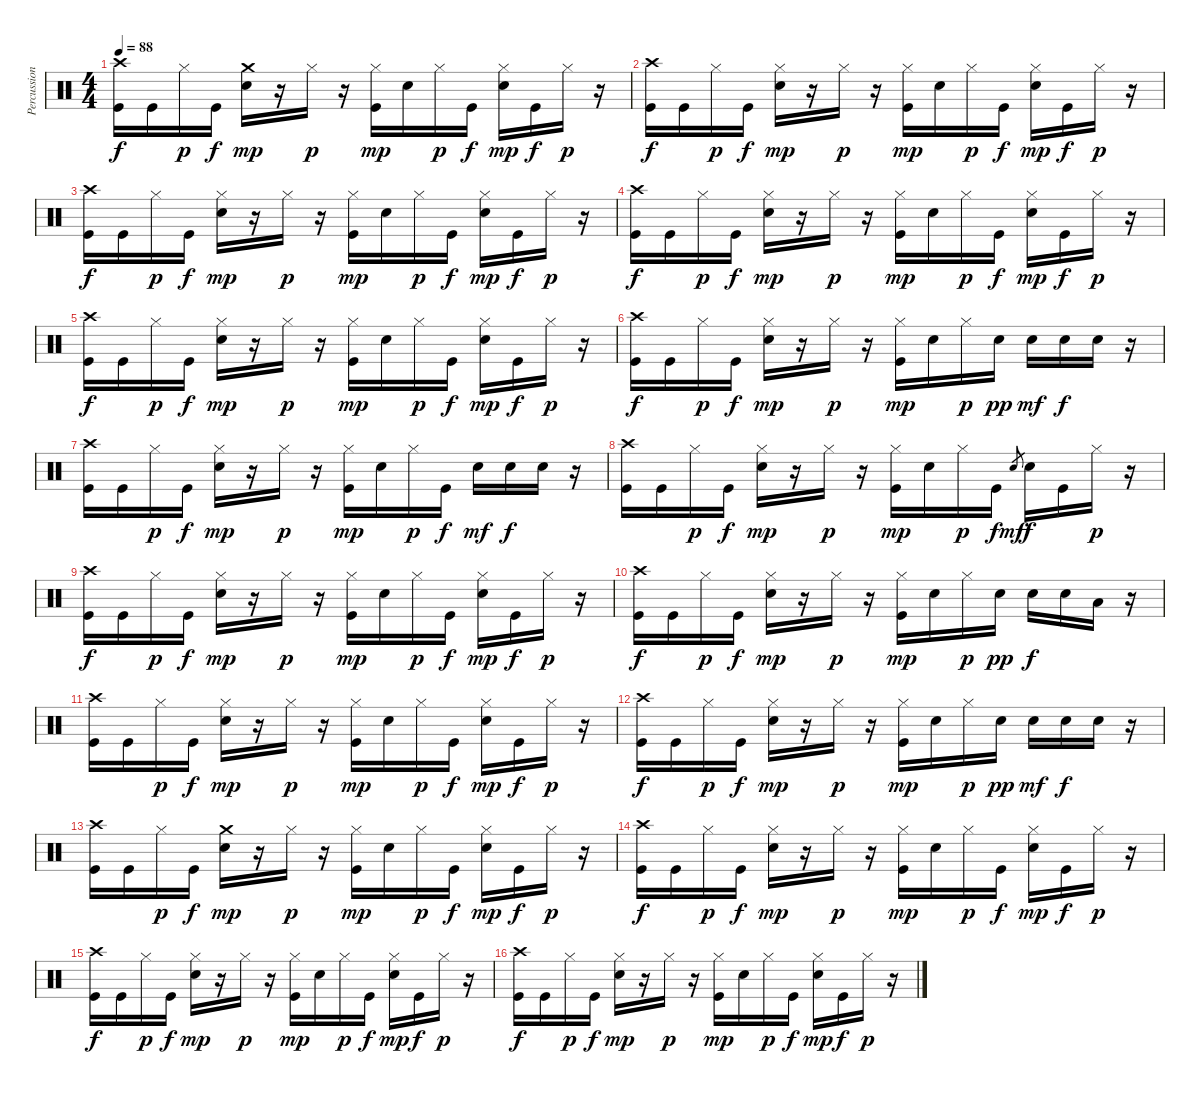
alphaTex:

\track ("Percussion" "Percussion") {instrument percussion}
\staff {score}
\articulation defaults
\ts (4 4)
\tempo 88
\clef neutral
\ks c
("Crash high (hit)" "Kick (hit)").16{dy f} "Kick (hit)".16 "Hi-Hat (closed)".16{dy p} "Kick (hit)".16{dy f} ("Crash medium (hit)" "Snare (hit) 2").16{dy mp} r.16 "Hi-Hat (closed)".16{dy p} r.16 ("Hi-Hat (closed)" "Kick (hit)").16{dy mp} "Snare (hit) 2".16 "Hi-Hat (closed)".16{dy p} "Kick (hit)".16{dy f} ("Hi-Hat (closed)" "Snare (hit) 2").16{dy mp} "Kick (hit)".16{dy f} "Hi-Hat (closed)".16{dy p} r.16 |
("Crash high (hit)" "Kick (hit)").16{dy f} "Kick (hit)".16 "Hi-Hat (closed)".16{dy p} "Kick (hit)".16{dy f} ("Hi-Hat (closed)" "Snare (hit) 2").16{dy mp} r.16 "Hi-Hat (closed)".16{dy p} r.16 ("Hi-Hat (closed)" "Kick (hit)").16{dy mp} "Snare (hit) 2".16 "Hi-Hat (closed)".16{dy p} "Kick (hit)".16{dy f} ("Hi-Hat (closed)" "Snare (hit) 2").16{dy mp} "Kick (hit)".16{dy f} "Hi-Hat (closed)".16{dy p} r.16 |
("Crash high (hit)" "Kick (hit)").16{dy f} "Kick (hit)".16 "Hi-Hat (closed)".16{dy p} "Kick (hit)".16{dy f} ("Hi-Hat (closed)" "Snare (hit) 2").16{dy mp} r.16 "Hi-Hat (closed)".16{dy p} r.16 ("Hi-Hat (closed)" "Kick (hit)").16{dy mp} "Snare (hit) 2".16 "Hi-Hat (closed)".16{dy p} "Kick (hit)".16{dy f} ("Hi-Hat (closed)" "Snare (hit) 2").16{dy mp} "Kick (hit)".16{dy f} "Hi-Hat (closed)".16{dy p} r.16 |
("Crash high (hit)" "Kick (hit)").16{dy f} "Kick (hit)".16 "Hi-Hat (closed)".16{dy p} "Kick (hit)".16{dy f} ("Hi-Hat (closed)" "Snare (hit) 2").16{dy mp} r.16 "Hi-Hat (closed)".16{dy p} r.16 ("Hi-Hat (closed)" "Kick (hit)").16{dy mp} "Snare (hit) 2".16 "Hi-Hat (closed)".16{dy p} "Kick (hit)".16{dy f} ("Hi-Hat (closed)" "Snare (hit) 2").16{dy mp} "Kick (hit)".16{dy f} "Hi-Hat (closed)".16{dy p} r.16 |
("Crash high (hit)" "Kick (hit)").16{dy f} "Kick (hit)".16 "Hi-Hat (closed)".16{dy p} "Kick (hit)".16{dy f} ("Hi-Hat (closed)" "Snare (hit) 2").16{dy mp} r.16 "Hi-Hat (closed)".16{dy p} r.16 ("Hi-Hat (closed)" "Kick (hit)").16{dy mp} "Snare (hit) 2".16 "Hi-Hat (closed)".16{dy p} "Kick (hit)".16{dy f} ("Hi-Hat (closed)" "Snare (hit) 2").16{dy mp} "Kick (hit)".16{dy f} "Hi-Hat (closed)".16{dy p} r.16 |
("Crash high (hit)" "Kick (hit)").16{dy f} "Kick (hit)".16 "Hi-Hat (closed)".16{dy p} "Kick (hit)".16{dy f} ("Hi-Hat (closed)" "Snare (hit) 2").16{dy mp} r.16 "Hi-Hat (closed)".16{dy p} r.16 ("Hi-Hat (closed)" "Kick (hit)").16{dy mp} "Snare (hit) 2".16 "Hi-Hat (closed)".16{dy p} "Snare (hit) 2".16{dy pp} "Snare (hit) 2".16{dy mf} "Snare (hit) 2".16{dy f} "Snare (hit) 2".16 r.16 |
("Crash high (hit)" "Kick (hit)").16 "Kick (hit)".16 "Hi-Hat (closed)".16{dy p} "Kick (hit)".16{dy f} ("Hi-Hat (closed)" "Snare (hit) 2").16{dy mp} r.16 "Hi-Hat (closed)".16{dy p} r.16 ("Hi-Hat (closed)" "Kick (hit)").16{dy mp} "Snare (hit) 2".16 "Hi-Hat (closed)".16{dy p} "Kick (hit)".16{dy f} "Snare (hit) 2".16{dy mf} "Snare (hit) 2".16{dy f} "Snare (hit) 2".16 r.16 |
("Crash high (hit)" "Kick (hit)").16 "Kick (hit)".16 "Hi-Hat (closed)".16{dy p} "Kick (hit)".16{dy f} ("Hi-Hat (closed)" "Snare (hit) 2").16{dy mp} r.16 "Hi-Hat (closed)".16{dy p} r.16 ("Hi-Hat (closed)" "Kick (hit)").16{dy mp} "Snare (hit) 2".16 "Hi-Hat (closed)".16{dy p} "Kick (hit)".16{dy f} "Snare (hit) 2".8{gr dy mf} "Snare (hit) 2".16{dy f} "Kick (hit)".16 "Hi-Hat (closed)".16{dy p} r.16 |
("Crash high (hit)" "Kick (hit)").16{dy f} "Kick (hit)".16 "Hi-Hat (closed)".16{dy p} "Kick (hit)".16{dy f} ("Hi-Hat (closed)" "Snare (hit) 2").16{dy mp} r.16 "Hi-Hat (closed)".16{dy p} r.16 ("Hi-Hat (closed)" "Kick (hit)").16{dy mp} "Snare (hit) 2".16 "Hi-Hat (closed)".16{dy p} "Kick (hit)".16{dy f} ("Hi-Hat (closed)" "Snare (hit) 2").16{dy mp} "Kick (hit)".16{dy f} "Hi-Hat (closed)".16{dy p} r.16 |
("Crash high (hit)" "Kick (hit)").16{dy f} "Kick (hit)".16 "Hi-Hat (closed)".16{dy p} "Kick (hit)".16{dy f} ("Hi-Hat (closed)" "Snare (hit) 2").16{dy mp} r.16 "Hi-Hat (closed)".16{dy p} r.16 ("Hi-Hat (closed)" "Kick (hit)").16{dy mp} "Snare (hit) 2".16 "Hi-Hat (closed)".16{dy p} "Snare (hit) 2".16{dy pp} "Snare (hit) 2".16{dy f} "Snare (hit) 2".16 "Low Tom (hit)".16 r.16 |
("Crash high (hit)" "Kick (hit)").16 "Kick (hit)".16 "Hi-Hat (closed)".16{dy p} "Kick (hit)".16{dy f} ("Hi-Hat (closed)" "Snare (hit) 2").16{dy mp} r.16 "Hi-Hat (closed)".16{dy p} r.16 ("Hi-Hat (closed)" "Kick (hit)").16{dy mp} "Snare (hit) 2".16 "Hi-Hat (closed)".16{dy p} "Kick (hit)".16{dy f} ("Hi-Hat (closed)" "Snare (hit) 2").16{dy mp} "Kick (hit)".16{dy f} "Hi-Hat (closed)".16{dy p} r.16 |
("Crash high (hit)" "Kick (hit)").16{dy f} "Kick (hit)".16 "Hi-Hat (closed)".16{dy p} "Kick (hit)".16{dy f} ("Hi-Hat (closed)" "Snare (hit) 2").16{dy mp} r.16 "Hi-Hat (closed)".16{dy p} r.16 ("Hi-Hat (closed)" "Kick (hit)").16{dy mp} "Snare (hit) 2".16 "Hi-Hat (closed)".16{dy p} "Snare (hit) 2".16{dy pp} "Snare (hit) 2".16{dy mf} "Snare (hit) 2".16{dy f} "Snare (hit) 2".16 r.16 |
("Crash high (hit)" "Kick (hit)").16 "Kick (hit)".16 "Hi-Hat (closed)".16{dy p} "Kick (hit)".16{dy f} ("Crash medium (hit)" "Snare (hit) 2").16{dy mp} r.16 "Hi-Hat (closed)".16{dy p} r.16 ("Hi-Hat (closed)" "Kick (hit)").16{dy mp} "Snare (hit) 2".16 "Hi-Hat (closed)".16{dy p} "Kick (hit)".16{dy f} ("Hi-Hat (closed)" "Snare (hit) 2").16{dy mp} "Kick (hit)".16{dy f} "Hi-Hat (closed)".16{dy p} r.16 |
("Crash high (hit)" "Kick (hit)").16{dy f} "Kick (hit)".16 "Hi-Hat (closed)".16{dy p} "Kick (hit)".16{dy f} ("Hi-Hat (closed)" "Snare (hit) 2").16{dy mp} r.16 "Hi-Hat (closed)".16{dy p} r.16 ("Hi-Hat (closed)" "Kick (hit)").16{dy mp} "Snare (hit) 2".16 "Hi-Hat (closed)".16{dy p} "Kick (hit)".16{dy f} ("Hi-Hat (closed)" "Snare (hit) 2").16{dy mp} "Kick (hit)".16{dy f} "Hi-Hat (closed)".16{dy p} r.16 |
("Crash high (hit)" "Kick (hit)").16{dy f} "Kick (hit)".16 "Hi-Hat (closed)".16{dy p} "Kick (hit)".16{dy f} ("Hi-Hat (closed)" "Snare (hit) 2").16{dy mp} r.16 "Hi-Hat (closed)".16{dy p} r.16 ("Hi-Hat (closed)" "Kick (hit)").16{dy mp} "Snare (hit) 2".16 "Hi-Hat (closed)".16{dy p} "Kick (hit)".16{dy f} ("Hi-Hat (closed)" "Snare (hit) 2").16{dy mp} "Kick (hit)".16{dy f} "Hi-Hat (closed)".16{dy p} r.16 |
("Crash high (hit)" "Kick (hit)").16{dy f} "Kick (hit)".16 "Hi-Hat (closed)".16{dy p} "Kick (hit)".16{dy f} ("Hi-Hat (closed)" "Snare (hit) 2").16{dy mp} r.16 "Hi-Hat (closed)".16{dy p} r.16 ("Hi-Hat (closed)" "Kick (hit)").16{dy mp} "Snare (hit) 2".16 "Hi-Hat (closed)".16{dy p} "Kick (hit)".16{dy f} ("Hi-Hat (closed)" "Snare (hit) 2").16{dy mp} "Kick (hit)".16{dy f} "Hi-Hat (closed)".16{dy p} r.16
